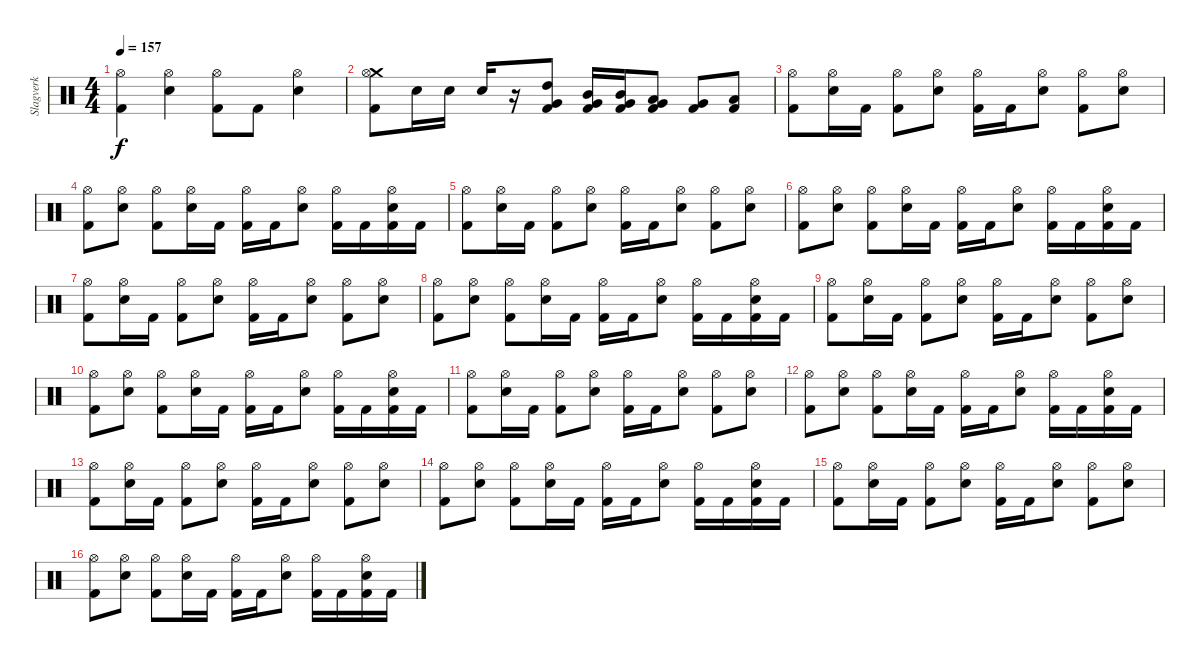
\track ("Slagverk" "Slagverk") {instrument percussion}
\staff {score}
\articulation defaults
\ts (4 4)
\tempo 157
\clef neutral
\ks c
("Hi-Hat (open)" "Kick (hit) 2").4{dy f} ("Hi-Hat (open)" "Snare (hit) 2").4 ("Hi-Hat (open)" "Kick (hit) 2").8 "Kick (hit) 2".8 ("Hi-Hat (open)" "Snare (hit) 2").4 |
("Crash medium (hit)" "Hi-Hat (open)" "Kick (hit) 2").8 "Snare (hit) 2".16 "Snare (hit) 2".16 "Snare (hit) 2".16 r.16 ("Very Low Tom (hit)" "High Tom (hit)" "Kick (hit) 2").8 ("Very Low Tom (hit)" "Mid Tom (hit)" "Kick (hit) 2").16 ("Very Low Tom (hit)" "Mid Tom (hit)" "Kick (hit) 2").16 ("Very Low Tom (hit)" "Low Tom (hit)" "Kick (hit) 2").8 ("Very Low Tom (hit)" "Kick (hit) 2").8 ("Low Floor Tom (hit)" "Kick (hit) 2").8 |
("Kick (hit) 2" "Hi-Hat (open)").8 ("Snare (hit) 2" "Hi-Hat (open)").16 "Kick (hit) 2".16 ("Kick (hit) 2" "Hi-Hat (open)").8 ("Snare (hit) 2" "Hi-Hat (open)").8 ("Kick (hit) 2" "Hi-Hat (open)").16 "Kick (hit) 2".16 ("Snare (hit) 2" "Hi-Hat (open)").8 ("Kick (hit) 2" "Hi-Hat (open)").8 ("Snare (hit) 2" "Hi-Hat (open)").8 |
("Kick (hit) 2" "Hi-Hat (open)").8 ("Snare (hit) 2" "Hi-Hat (open)").8 ("Kick (hit) 2" "Hi-Hat (open)").8 ("Snare (hit) 2" "Hi-Hat (open)").16 "Kick (hit) 2".16 ("Kick (hit) 2" "Hi-Hat (open)").16 "Kick (hit) 2".16 ("Snare (hit) 2" "Hi-Hat (open)").8 ("Kick (hit) 2" "Hi-Hat (open)").16 "Kick (hit) 2".16 ("Kick (hit) 2" "Snare (hit) 2" "Hi-Hat (open)").16 "Kick (hit) 2".16 |
("Kick (hit) 2" "Hi-Hat (open)").8 ("Snare (hit) 2" "Hi-Hat (open)").16 "Kick (hit) 2".16 ("Kick (hit) 2" "Hi-Hat (open)").8 ("Snare (hit) 2" "Hi-Hat (open)").8 ("Kick (hit) 2" "Hi-Hat (open)").16 "Kick (hit) 2".16 ("Snare (hit) 2" "Hi-Hat (open)").8 ("Kick (hit) 2" "Hi-Hat (open)").8 ("Snare (hit) 2" "Hi-Hat (open)").8 |
("Kick (hit) 2" "Hi-Hat (open)").8 ("Snare (hit) 2" "Hi-Hat (open)").8 ("Kick (hit) 2" "Hi-Hat (open)").8 ("Snare (hit) 2" "Hi-Hat (open)").16 "Kick (hit) 2".16 ("Kick (hit) 2" "Hi-Hat (open)").16 "Kick (hit) 2".16 ("Snare (hit) 2" "Hi-Hat (open)").8 ("Kick (hit) 2" "Hi-Hat (open)").16 "Kick (hit) 2".16 ("Kick (hit) 2" "Snare (hit) 2" "Hi-Hat (open)").16 "Kick (hit) 2".16 |
("Kick (hit) 2" "Hi-Hat (open)").8 ("Snare (hit) 2" "Hi-Hat (open)").16 "Kick (hit) 2".16 ("Kick (hit) 2" "Hi-Hat (open)").8 ("Snare (hit) 2" "Hi-Hat (open)").8 ("Kick (hit) 2" "Hi-Hat (open)").16 "Kick (hit) 2".16 ("Snare (hit) 2" "Hi-Hat (open)").8 ("Kick (hit) 2" "Hi-Hat (open)").8 ("Snare (hit) 2" "Hi-Hat (open)").8 |
("Kick (hit) 2" "Hi-Hat (open)").8 ("Snare (hit) 2" "Hi-Hat (open)").8 ("Kick (hit) 2" "Hi-Hat (open)").8 ("Snare (hit) 2" "Hi-Hat (open)").16 "Kick (hit) 2".16 ("Kick (hit) 2" "Hi-Hat (open)").16 "Kick (hit) 2".16 ("Snare (hit) 2" "Hi-Hat (open)").8 ("Kick (hit) 2" "Hi-Hat (open)").16 "Kick (hit) 2".16 ("Kick (hit) 2" "Snare (hit) 2" "Hi-Hat (open)").16 "Kick (hit) 2".16 |
("Kick (hit) 2" "Hi-Hat (open)").8 ("Snare (hit) 2" "Hi-Hat (open)").16 "Kick (hit) 2".16 ("Kick (hit) 2" "Hi-Hat (open)").8 ("Snare (hit) 2" "Hi-Hat (open)").8 ("Kick (hit) 2" "Hi-Hat (open)").16 "Kick (hit) 2".16 ("Snare (hit) 2" "Hi-Hat (open)").8 ("Kick (hit) 2" "Hi-Hat (open)").8 ("Snare (hit) 2" "Hi-Hat (open)").8 |
("Kick (hit) 2" "Hi-Hat (open)").8 ("Snare (hit) 2" "Hi-Hat (open)").8 ("Kick (hit) 2" "Hi-Hat (open)").8 ("Snare (hit) 2" "Hi-Hat (open)").16 "Kick (hit) 2".16 ("Kick (hit) 2" "Hi-Hat (open)").16 "Kick (hit) 2".16 ("Snare (hit) 2" "Hi-Hat (open)").8 ("Kick (hit) 2" "Hi-Hat (open)").16 "Kick (hit) 2".16 ("Kick (hit) 2" "Snare (hit) 2" "Hi-Hat (open)").16 "Kick (hit) 2".16 |
("Kick (hit) 2" "Hi-Hat (open)").8 ("Snare (hit) 2" "Hi-Hat (open)").16 "Kick (hit) 2".16 ("Kick (hit) 2" "Hi-Hat (open)").8 ("Snare (hit) 2" "Hi-Hat (open)").8 ("Kick (hit) 2" "Hi-Hat (open)").16 "Kick (hit) 2".16 ("Snare (hit) 2" "Hi-Hat (open)").8 ("Kick (hit) 2" "Hi-Hat (open)").8 ("Snare (hit) 2" "Hi-Hat (open)").8 |
("Kick (hit) 2" "Hi-Hat (open)").8 ("Snare (hit) 2" "Hi-Hat (open)").8 ("Kick (hit) 2" "Hi-Hat (open)").8 ("Snare (hit) 2" "Hi-Hat (open)").16 "Kick (hit) 2".16 ("Kick (hit) 2" "Hi-Hat (open)").16 "Kick (hit) 2".16 ("Snare (hit) 2" "Hi-Hat (open)").8 ("Kick (hit) 2" "Hi-Hat (open)").16 "Kick (hit) 2".16 ("Kick (hit) 2" "Snare (hit) 2" "Hi-Hat (open)").16 "Kick (hit) 2".16 |
("Kick (hit) 2" "Hi-Hat (open)").8 ("Snare (hit) 2" "Hi-Hat (open)").16 "Kick (hit) 2".16 ("Kick (hit) 2" "Hi-Hat (open)").8 ("Snare (hit) 2" "Hi-Hat (open)").8 ("Kick (hit) 2" "Hi-Hat (open)").16 "Kick (hit) 2".16 ("Snare (hit) 2" "Hi-Hat (open)").8 ("Kick (hit) 2" "Hi-Hat (open)").8 ("Snare (hit) 2" "Hi-Hat (open)").8 |
("Kick (hit) 2" "Hi-Hat (open)").8 ("Snare (hit) 2" "Hi-Hat (open)").8 ("Kick (hit) 2" "Hi-Hat (open)").8 ("Snare (hit) 2" "Hi-Hat (open)").16 "Kick (hit) 2".16 ("Kick (hit) 2" "Hi-Hat (open)").16 "Kick (hit) 2".16 ("Snare (hit) 2" "Hi-Hat (open)").8 ("Kick (hit) 2" "Hi-Hat (open)").16 "Kick (hit) 2".16 ("Kick (hit) 2" "Snare (hit) 2" "Hi-Hat (open)").16 "Kick (hit) 2".16 |
("Kick (hit) 2" "Hi-Hat (open)").8 ("Snare (hit) 2" "Hi-Hat (open)").16 "Kick (hit) 2".16 ("Kick (hit) 2" "Hi-Hat (open)").8 ("Snare (hit) 2" "Hi-Hat (open)").8 ("Kick (hit) 2" "Hi-Hat (open)").16 "Kick (hit) 2".16 ("Snare (hit) 2" "Hi-Hat (open)").8 ("Kick (hit) 2" "Hi-Hat (open)").8 ("Snare (hit) 2" "Hi-Hat (open)").8 |
("Kick (hit) 2" "Hi-Hat (open)").8 ("Snare (hit) 2" "Hi-Hat (open)").8 ("Kick (hit) 2" "Hi-Hat (open)").8 ("Snare (hit) 2" "Hi-Hat (open)").16 "Kick (hit) 2".16 ("Kick (hit) 2" "Hi-Hat (open)").16 "Kick (hit) 2".16 ("Snare (hit) 2" "Hi-Hat (open)").8 ("Kick (hit) 2" "Hi-Hat (open)").16 "Kick (hit) 2".16 ("Kick (hit) 2" "Snare (hit) 2" "Hi-Hat (open)").16 "Kick (hit) 2".16
